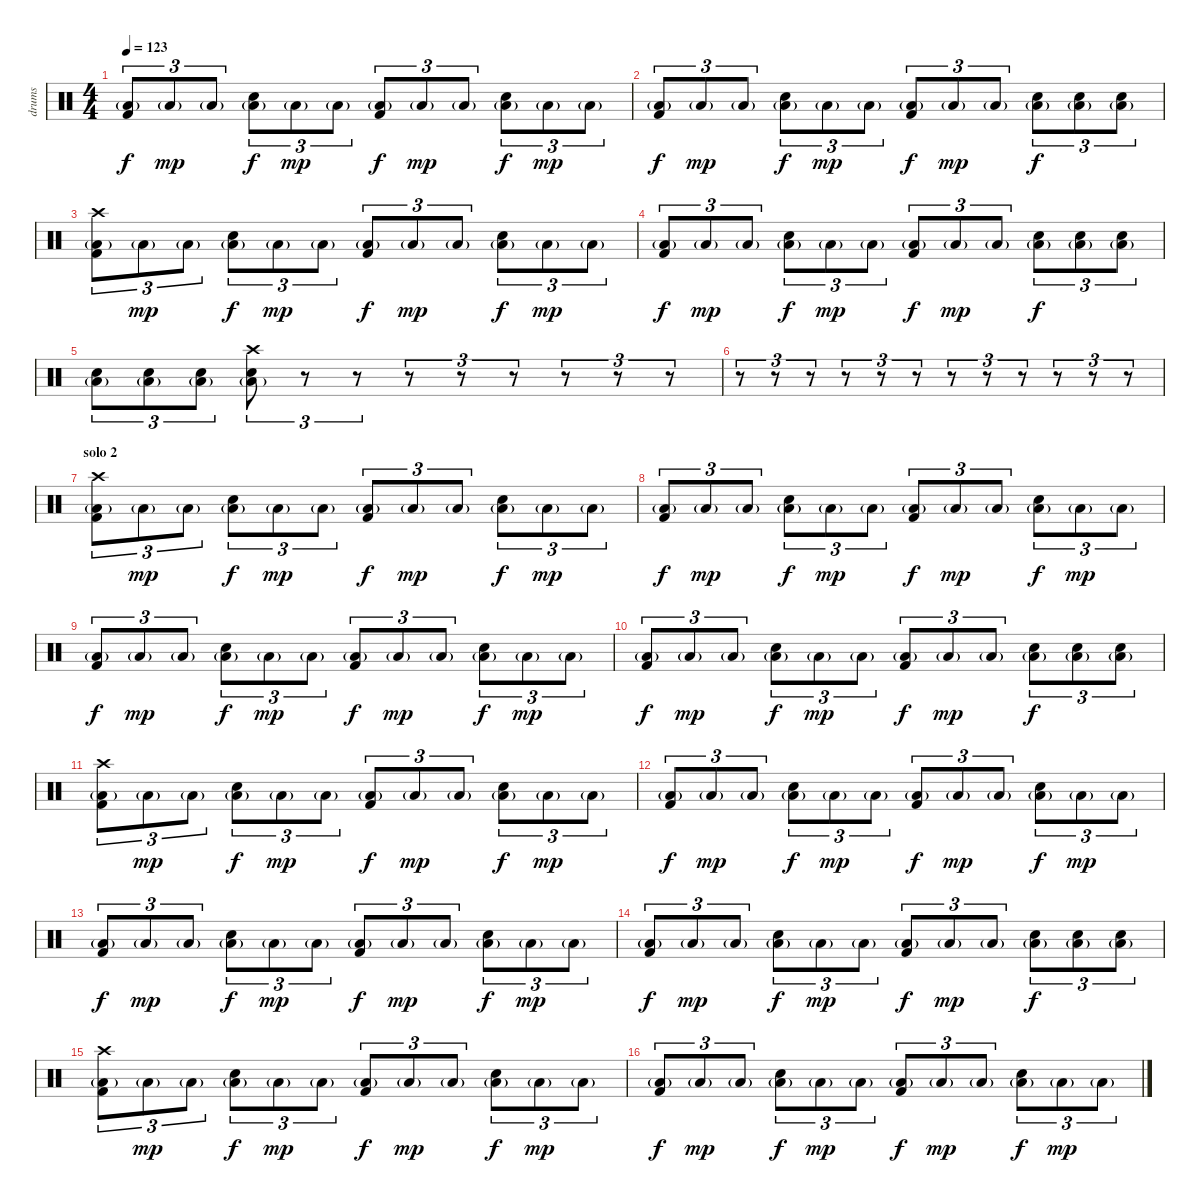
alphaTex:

\track ("drums" "drums") {instrument percussion}
\staff {score}
\articulation defaults
\ts (4 4)
\tempo 123
\clef neutral
\ks c
("Low Floor Tom (hit)"{g} "Kick (hit) 2").8{tu (3 2) txt "" dy f} "Low Floor Tom (hit)"{g}.8{tu (3 2) txt "" dy mp} "Low Floor Tom (hit)"{g}.8{tu (3 2) txt ""} ("Low Floor Tom (hit)"{g} "Electric Snare (hit)").8{tu (3 2) txt "" dy f} "Low Floor Tom (hit)"{g}.8{tu (3 2) txt "" dy mp} "Low Floor Tom (hit)"{g}.8{tu (3 2) txt ""} ("Low Floor Tom (hit)"{g} "Kick (hit) 2").8{tu (3 2) txt "" dy f} "Low Floor Tom (hit)"{g}.8{tu (3 2) txt "" dy mp} "Low Floor Tom (hit)"{g}.8{tu (3 2) txt ""} ("Low Floor Tom (hit)"{g} "Electric Snare (hit)").8{tu (3 2) txt "" dy f} "Low Floor Tom (hit)"{g}.8{tu (3 2) txt "" dy mp} "Low Floor Tom (hit)"{g}.8{tu (3 2) txt ""} |
("Low Floor Tom (hit)"{g} "Kick (hit) 2").8{tu (3 2) txt "" dy f} "Low Floor Tom (hit)"{g}.8{tu (3 2) txt "" dy mp} "Low Floor Tom (hit)"{g}.8{tu (3 2) txt ""} ("Low Floor Tom (hit)"{g} "Electric Snare (hit)").8{tu (3 2) txt "" dy f} "Low Floor Tom (hit)"{g}.8{tu (3 2) txt "" dy mp} "Low Floor Tom (hit)"{g}.8{tu (3 2) txt ""} ("Low Floor Tom (hit)"{g} "Kick (hit) 2").8{tu (3 2) txt "" dy f} "Low Floor Tom (hit)"{g}.8{tu (3 2) txt "" dy mp} "Low Floor Tom (hit)"{g}.8{tu (3 2) txt ""} ("Low Floor Tom (hit)"{g} "Electric Snare (hit)").8{tu (3 2) txt "" dy f} ("Low Floor Tom (hit)"{g} "Electric Snare (hit)").8{tu (3 2) txt ""} ("Low Floor Tom (hit)"{g} "Electric Snare (hit)").8{tu (3 2) txt ""} |
("Low Floor Tom (hit)"{g} "Kick (hit) 2" "Crash high (hit)").8{tu (3 2) txt ""} "Low Floor Tom (hit)"{g}.8{tu (3 2) txt "" dy mp} "Low Floor Tom (hit)"{g}.8{tu (3 2) txt ""} ("Low Floor Tom (hit)"{g} "Electric Snare (hit)").8{tu (3 2) txt "" dy f} "Low Floor Tom (hit)"{g}.8{tu (3 2) txt "" dy mp} "Low Floor Tom (hit)"{g}.8{tu (3 2) txt ""} ("Low Floor Tom (hit)"{g} "Kick (hit) 2").8{tu (3 2) txt "" dy f} "Low Floor Tom (hit)"{g}.8{tu (3 2) txt "" dy mp} "Low Floor Tom (hit)"{g}.8{tu (3 2) txt ""} ("Low Floor Tom (hit)"{g} "Electric Snare (hit)").8{tu (3 2) txt "" dy f} "Low Floor Tom (hit)"{g}.8{tu (3 2) txt "" dy mp} "Low Floor Tom (hit)"{g}.8{tu (3 2) txt ""} |
("Low Floor Tom (hit)"{g} "Kick (hit) 2").8{tu (3 2) txt "" dy f} "Low Floor Tom (hit)"{g}.8{tu (3 2) txt "" dy mp} "Low Floor Tom (hit)"{g}.8{tu (3 2) txt ""} ("Low Floor Tom (hit)"{g} "Electric Snare (hit)").8{tu (3 2) txt "" dy f} "Low Floor Tom (hit)"{g}.8{tu (3 2) txt "" dy mp} "Low Floor Tom (hit)"{g}.8{tu (3 2) txt ""} ("Low Floor Tom (hit)"{g} "Kick (hit) 2").8{tu (3 2) txt "" dy f} "Low Floor Tom (hit)"{g}.8{tu (3 2) txt "" dy mp} "Low Floor Tom (hit)"{g}.8{tu (3 2) txt ""} ("Low Floor Tom (hit)"{g} "Electric Snare (hit)").8{tu (3 2) txt "" dy f} ("Low Floor Tom (hit)"{g} "Electric Snare (hit)").8{tu (3 2) txt ""} ("Low Floor Tom (hit)"{g} "Electric Snare (hit)").8{tu (3 2) txt ""} |
("Low Floor Tom (hit)"{g} "Electric Snare (hit)").8{tu (3 2) txt ""} ("Low Floor Tom (hit)"{g} "Electric Snare (hit)").8{tu (3 2) txt ""} ("Low Floor Tom (hit)"{g} "Electric Snare (hit)").8{tu (3 2) txt ""} ("Low Floor Tom (hit)"{g} "Electric Snare (hit)" "Crash high (hit)").8{tu (3 2) txt ""} r.8{tu (3 2) txt ""} r.8{tu (3 2) txt ""} r.8{tu (3 2) txt ""} r.8{tu (3 2) txt ""} r.8{tu (3 2) txt ""} r.8{tu (3 2) txt ""} r.8{tu (3 2) txt ""} r.8{tu (3 2) txt ""} |
r.8{tu (3 2) txt ""} r.8{tu (3 2) txt ""} r.8{tu (3 2) txt ""} r.8{tu (3 2) txt ""} r.8{tu (3 2) txt ""} r.8{tu (3 2) txt ""} r.8{tu (3 2) txt ""} r.8{tu (3 2) txt ""} r.8{tu (3 2) txt ""} r.8{tu (3 2) txt ""} r.8{tu (3 2) txt ""} r.8{tu (3 2) txt ""} |
\section ("" "solo 2")
("Low Floor Tom (hit)"{g} "Kick (hit) 2" "Crash high (hit)").8{tu (3 2) txt ""} "Low Floor Tom (hit)"{g}.8{tu (3 2) txt "" dy mp} "Low Floor Tom (hit)"{g}.8{tu (3 2) txt ""} ("Low Floor Tom (hit)"{g} "Electric Snare (hit)").8{tu (3 2) txt "" dy f} "Low Floor Tom (hit)"{g}.8{tu (3 2) txt "" dy mp} "Low Floor Tom (hit)"{g}.8{tu (3 2) txt ""} ("Low Floor Tom (hit)"{g} "Kick (hit) 2").8{tu (3 2) txt "" dy f} "Low Floor Tom (hit)"{g}.8{tu (3 2) txt "" dy mp} "Low Floor Tom (hit)"{g}.8{tu (3 2) txt ""} ("Low Floor Tom (hit)"{g} "Electric Snare (hit)").8{tu (3 2) txt "" dy f} "Low Floor Tom (hit)"{g}.8{tu (3 2) txt "" dy mp} "Low Floor Tom (hit)"{g}.8{tu (3 2) txt ""} |
("Low Floor Tom (hit)"{g} "Kick (hit) 2").8{tu (3 2) txt "" dy f} "Low Floor Tom (hit)"{g}.8{tu (3 2) txt "" dy mp} "Low Floor Tom (hit)"{g}.8{tu (3 2) txt ""} ("Low Floor Tom (hit)"{g} "Electric Snare (hit)").8{tu (3 2) txt "" dy f} "Low Floor Tom (hit)"{g}.8{tu (3 2) txt "" dy mp} "Low Floor Tom (hit)"{g}.8{tu (3 2) txt ""} ("Low Floor Tom (hit)"{g} "Kick (hit) 2").8{tu (3 2) txt "" dy f} "Low Floor Tom (hit)"{g}.8{tu (3 2) txt "" dy mp} "Low Floor Tom (hit)"{g}.8{tu (3 2) txt ""} ("Low Floor Tom (hit)"{g} "Electric Snare (hit)").8{tu (3 2) txt "" dy f} "Low Floor Tom (hit)"{g}.8{tu (3 2) txt "" dy mp} "Low Floor Tom (hit)"{g}.8{tu (3 2) txt ""} |
("Low Floor Tom (hit)"{g} "Kick (hit) 2").8{tu (3 2) txt "" dy f} "Low Floor Tom (hit)"{g}.8{tu (3 2) txt "" dy mp} "Low Floor Tom (hit)"{g}.8{tu (3 2) txt ""} ("Low Floor Tom (hit)"{g} "Electric Snare (hit)").8{tu (3 2) txt "" dy f} "Low Floor Tom (hit)"{g}.8{tu (3 2) txt "" dy mp} "Low Floor Tom (hit)"{g}.8{tu (3 2) txt ""} ("Low Floor Tom (hit)"{g} "Kick (hit) 2").8{tu (3 2) txt "" dy f} "Low Floor Tom (hit)"{g}.8{tu (3 2) txt "" dy mp} "Low Floor Tom (hit)"{g}.8{tu (3 2) txt ""} ("Low Floor Tom (hit)"{g} "Electric Snare (hit)").8{tu (3 2) txt "" dy f} "Low Floor Tom (hit)"{g}.8{tu (3 2) txt "" dy mp} "Low Floor Tom (hit)"{g}.8{tu (3 2) txt ""} |
("Low Floor Tom (hit)"{g} "Kick (hit) 2").8{tu (3 2) txt "" dy f} "Low Floor Tom (hit)"{g}.8{tu (3 2) txt "" dy mp} "Low Floor Tom (hit)"{g}.8{tu (3 2) txt ""} ("Low Floor Tom (hit)"{g} "Electric Snare (hit)").8{tu (3 2) txt "" dy f} "Low Floor Tom (hit)"{g}.8{tu (3 2) txt "" dy mp} "Low Floor Tom (hit)"{g}.8{tu (3 2) txt ""} ("Low Floor Tom (hit)"{g} "Kick (hit) 2").8{tu (3 2) txt "" dy f} "Low Floor Tom (hit)"{g}.8{tu (3 2) txt "" dy mp} "Low Floor Tom (hit)"{g}.8{tu (3 2) txt ""} ("Low Floor Tom (hit)"{g} "Electric Snare (hit)").8{tu (3 2) txt "" dy f} ("Low Floor Tom (hit)"{g} "Electric Snare (hit)").8{tu (3 2) txt ""} ("Low Floor Tom (hit)"{g} "Electric Snare (hit)").8{tu (3 2) txt ""} |
("Low Floor Tom (hit)"{g} "Kick (hit) 2" "Crash high (hit)").8{tu (3 2) txt ""} "Low Floor Tom (hit)"{g}.8{tu (3 2) txt "" dy mp} "Low Floor Tom (hit)"{g}.8{tu (3 2) txt ""} ("Low Floor Tom (hit)"{g} "Electric Snare (hit)").8{tu (3 2) txt "" dy f} "Low Floor Tom (hit)"{g}.8{tu (3 2) txt "" dy mp} "Low Floor Tom (hit)"{g}.8{tu (3 2) txt ""} ("Low Floor Tom (hit)"{g} "Kick (hit) 2").8{tu (3 2) txt "" dy f} "Low Floor Tom (hit)"{g}.8{tu (3 2) txt "" dy mp} "Low Floor Tom (hit)"{g}.8{tu (3 2) txt ""} ("Low Floor Tom (hit)"{g} "Electric Snare (hit)").8{tu (3 2) txt "" dy f} "Low Floor Tom (hit)"{g}.8{tu (3 2) txt "" dy mp} "Low Floor Tom (hit)"{g}.8{tu (3 2) txt ""} |
("Low Floor Tom (hit)"{g} "Kick (hit) 2").8{tu (3 2) txt "" dy f} "Low Floor Tom (hit)"{g}.8{tu (3 2) txt "" dy mp} "Low Floor Tom (hit)"{g}.8{tu (3 2) txt ""} ("Low Floor Tom (hit)"{g} "Electric Snare (hit)").8{tu (3 2) txt "" dy f} "Low Floor Tom (hit)"{g}.8{tu (3 2) txt "" dy mp} "Low Floor Tom (hit)"{g}.8{tu (3 2) txt ""} ("Low Floor Tom (hit)"{g} "Kick (hit) 2").8{tu (3 2) txt "" dy f} "Low Floor Tom (hit)"{g}.8{tu (3 2) txt "" dy mp} "Low Floor Tom (hit)"{g}.8{tu (3 2) txt ""} ("Low Floor Tom (hit)"{g} "Electric Snare (hit)").8{tu (3 2) txt "" dy f} "Low Floor Tom (hit)"{g}.8{tu (3 2) txt "" dy mp} "Low Floor Tom (hit)"{g}.8{tu (3 2) txt ""} |
("Low Floor Tom (hit)"{g} "Kick (hit) 2").8{tu (3 2) txt "" dy f} "Low Floor Tom (hit)"{g}.8{tu (3 2) txt "" dy mp} "Low Floor Tom (hit)"{g}.8{tu (3 2) txt ""} ("Low Floor Tom (hit)"{g} "Electric Snare (hit)").8{tu (3 2) txt "" dy f} "Low Floor Tom (hit)"{g}.8{tu (3 2) txt "" dy mp} "Low Floor Tom (hit)"{g}.8{tu (3 2) txt ""} ("Low Floor Tom (hit)"{g} "Kick (hit) 2").8{tu (3 2) txt "" dy f} "Low Floor Tom (hit)"{g}.8{tu (3 2) txt "" dy mp} "Low Floor Tom (hit)"{g}.8{tu (3 2) txt ""} ("Low Floor Tom (hit)"{g} "Electric Snare (hit)").8{tu (3 2) txt "" dy f} "Low Floor Tom (hit)"{g}.8{tu (3 2) txt "" dy mp} "Low Floor Tom (hit)"{g}.8{tu (3 2) txt ""} |
("Low Floor Tom (hit)"{g} "Kick (hit) 2").8{tu (3 2) txt "" dy f} "Low Floor Tom (hit)"{g}.8{tu (3 2) txt "" dy mp} "Low Floor Tom (hit)"{g}.8{tu (3 2) txt ""} ("Low Floor Tom (hit)"{g} "Electric Snare (hit)").8{tu (3 2) txt "" dy f} "Low Floor Tom (hit)"{g}.8{tu (3 2) txt "" dy mp} "Low Floor Tom (hit)"{g}.8{tu (3 2) txt ""} ("Low Floor Tom (hit)"{g} "Kick (hit) 2").8{tu (3 2) txt "" dy f} "Low Floor Tom (hit)"{g}.8{tu (3 2) txt "" dy mp} "Low Floor Tom (hit)"{g}.8{tu (3 2) txt ""} ("Low Floor Tom (hit)"{g} "Electric Snare (hit)").8{tu (3 2) txt "" dy f} ("Low Floor Tom (hit)"{g} "Electric Snare (hit)").8{tu (3 2) txt ""} ("Low Floor Tom (hit)"{g} "Electric Snare (hit)").8{tu (3 2) txt ""} |
("Low Floor Tom (hit)"{g} "Kick (hit) 2" "Crash high (hit)").8{tu (3 2) txt ""} "Low Floor Tom (hit)"{g}.8{tu (3 2) txt "" dy mp} "Low Floor Tom (hit)"{g}.8{tu (3 2) txt ""} ("Low Floor Tom (hit)"{g} "Electric Snare (hit)").8{tu (3 2) txt "" dy f} "Low Floor Tom (hit)"{g}.8{tu (3 2) txt "" dy mp} "Low Floor Tom (hit)"{g}.8{tu (3 2) txt ""} ("Low Floor Tom (hit)"{g} "Kick (hit) 2").8{tu (3 2) txt "" dy f} "Low Floor Tom (hit)"{g}.8{tu (3 2) txt "" dy mp} "Low Floor Tom (hit)"{g}.8{tu (3 2) txt ""} ("Low Floor Tom (hit)"{g} "Electric Snare (hit)").8{tu (3 2) txt "" dy f} "Low Floor Tom (hit)"{g}.8{tu (3 2) txt "" dy mp} "Low Floor Tom (hit)"{g}.8{tu (3 2) txt ""} |
("Low Floor Tom (hit)"{g} "Kick (hit) 2").8{tu (3 2) txt "" dy f} "Low Floor Tom (hit)"{g}.8{tu (3 2) txt "" dy mp} "Low Floor Tom (hit)"{g}.8{tu (3 2) txt ""} ("Low Floor Tom (hit)"{g} "Electric Snare (hit)").8{tu (3 2) txt "" dy f} "Low Floor Tom (hit)"{g}.8{tu (3 2) txt "" dy mp} "Low Floor Tom (hit)"{g}.8{tu (3 2) txt ""} ("Low Floor Tom (hit)"{g} "Kick (hit) 2").8{tu (3 2) txt "" dy f} "Low Floor Tom (hit)"{g}.8{tu (3 2) txt "" dy mp} "Low Floor Tom (hit)"{g}.8{tu (3 2) txt ""} ("Low Floor Tom (hit)"{g} "Electric Snare (hit)").8{tu (3 2) txt "" dy f} "Low Floor Tom (hit)"{g}.8{tu (3 2) txt "" dy mp} "Low Floor Tom (hit)"{g}.8{tu (3 2) txt ""}
